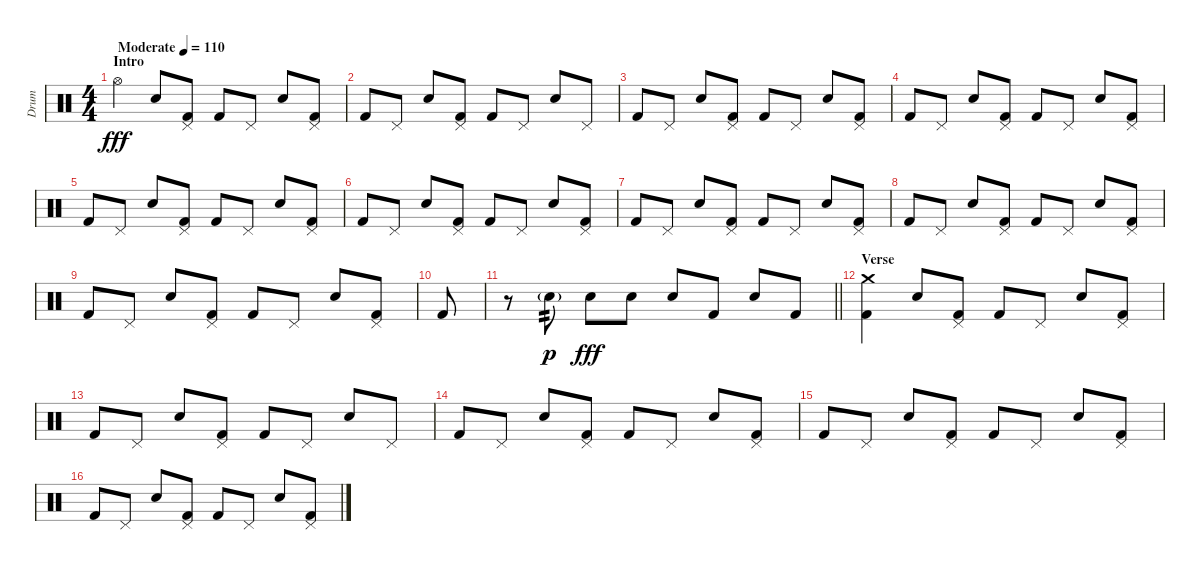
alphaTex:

\track ("Drum" "Drum") {instrument percussion}
\staff {score}
\articulation defaults
\ts (4 4)
\section ("" "Intro")
\tempo (110 "Moderate")
\clef neutral
\ks c "Hi-Hat (open)".4{dy fff} "Electric Snare (hit)".8
("Pedal Hi-Hat (hit)" "Kick (hit) 2").8 "Kick (hit) 2".8 "Pedal Hi-Hat (hit)".8 "Electric Snare (hit)".8 ("Pedal Hi-Hat (hit)" "Kick (hit) 2").8 |
"Kick (hit) 2".8 "Pedal Hi-Hat (hit)".8 "Electric Snare (hit)".8 ("Pedal Hi-Hat (hit)" "Kick (hit) 2").8 "Kick (hit) 2".8 "Pedal Hi-Hat (hit)".8 "Electric Snare (hit)".8 "Pedal Hi-Hat (hit)".8 |
"Kick (hit) 2".8 "Pedal Hi-Hat (hit)".8 "Electric Snare (hit)".8 ("Pedal Hi-Hat (hit)" "Kick (hit) 2").8 "Kick (hit) 2".8 "Pedal Hi-Hat (hit)".8 "Electric Snare (hit)".8 ("Pedal Hi-Hat (hit)" "Kick (hit) 2").8 |
"Kick (hit) 2".8 "Pedal Hi-Hat (hit)".8 "Electric Snare (hit)".8 ("Pedal Hi-Hat (hit)" "Kick (hit) 2").8 "Kick (hit) 2".8 "Pedal Hi-Hat (hit)".8 "Electric Snare (hit)".8 ("Pedal Hi-Hat (hit)" "Kick (hit) 2").8 |
"Kick (hit) 2".8 "Pedal Hi-Hat (hit)".8 "Electric Snare (hit)".8 ("Pedal Hi-Hat (hit)" "Kick (hit) 2").8 "Kick (hit) 2".8 "Pedal Hi-Hat (hit)".8 "Electric Snare (hit)".8 ("Pedal Hi-Hat (hit)" "Kick (hit) 2").8 |
"Kick (hit) 2".8 "Pedal Hi-Hat (hit)".8 "Electric Snare (hit)".8 ("Pedal Hi-Hat (hit)" "Kick (hit) 2").8 "Kick (hit) 2".8 "Pedal Hi-Hat (hit)".8 "Electric Snare (hit)".8 ("Pedal Hi-Hat (hit)" "Kick (hit) 2").8 |
"Kick (hit) 2".8 "Pedal Hi-Hat (hit)".8 "Electric Snare (hit)".8 ("Pedal Hi-Hat (hit)" "Kick (hit) 2").8 "Kick (hit) 2".8 "Pedal Hi-Hat (hit)".8 "Electric Snare (hit)".8 ("Pedal Hi-Hat (hit)" "Kick (hit) 2").8 |
"Kick (hit) 2".8 "Pedal Hi-Hat (hit)".8 "Electric Snare (hit)".8 ("Pedal Hi-Hat (hit)" "Kick (hit) 2").8 "Kick (hit) 2".8 "Pedal Hi-Hat (hit)".8 "Electric Snare (hit)".8 ("Pedal Hi-Hat (hit)" "Kick (hit) 2").8 |
"Kick (hit) 2".8 "Pedal Hi-Hat (hit)".8 "Electric Snare (hit)".8 ("Pedal Hi-Hat (hit)" "Kick (hit) 2").8 "Kick (hit) 2".8 "Pedal Hi-Hat (hit)".8 "Electric Snare (hit)".8 ("Pedal Hi-Hat (hit)" "Kick (hit) 2").8 |
"Kick (hit) 2".8 |
\barLineRight lightlight
r.8 "Electric Snare (hit)"{g}.8{tp 2 dy p} "Electric Snare (hit)".8{dy fff} "Electric Snare (hit)".8 "Electric Snare (hit)".8 "Kick (hit) 2".8 "Electric Snare (hit)".8 "Kick (hit) 2".8 |
\section ("" "Verse")
("Crash medium (hit)" "Kick (hit) 2").4 "Electric Snare (hit)".8 ("Pedal Hi-Hat (hit)" "Kick (hit) 2").8 "Kick (hit) 2".8 "Pedal Hi-Hat (hit)".8 "Electric Snare (hit)".8 ("Pedal Hi-Hat (hit)" "Kick (hit) 2").8 |
"Kick (hit) 2".8 "Pedal Hi-Hat (hit)".8 "Electric Snare (hit)".8 ("Pedal Hi-Hat (hit)" "Kick (hit) 2").8 "Kick (hit) 2".8 "Pedal Hi-Hat (hit)".8 "Electric Snare (hit)".8 "Pedal Hi-Hat (hit)".8 |
"Kick (hit) 2".8 "Pedal Hi-Hat (hit)".8 "Electric Snare (hit)".8 ("Pedal Hi-Hat (hit)" "Kick (hit) 2").8 "Kick (hit) 2".8 "Pedal Hi-Hat (hit)".8 "Electric Snare (hit)".8 ("Pedal Hi-Hat (hit)" "Kick (hit) 2").8 |
"Kick (hit) 2".8 "Pedal Hi-Hat (hit)".8 "Electric Snare (hit)".8 ("Pedal Hi-Hat (hit)" "Kick (hit) 2").8 "Kick (hit) 2".8 "Pedal Hi-Hat (hit)".8 "Electric Snare (hit)".8 ("Pedal Hi-Hat (hit)" "Kick (hit) 2").8 |
"Kick (hit) 2".8 "Pedal Hi-Hat (hit)".8 "Electric Snare (hit)".8 ("Pedal Hi-Hat (hit)" "Kick (hit) 2").8 "Kick (hit) 2".8 "Pedal Hi-Hat (hit)".8 "Electric Snare (hit)".8 ("Pedal Hi-Hat (hit)" "Kick (hit) 2").8
